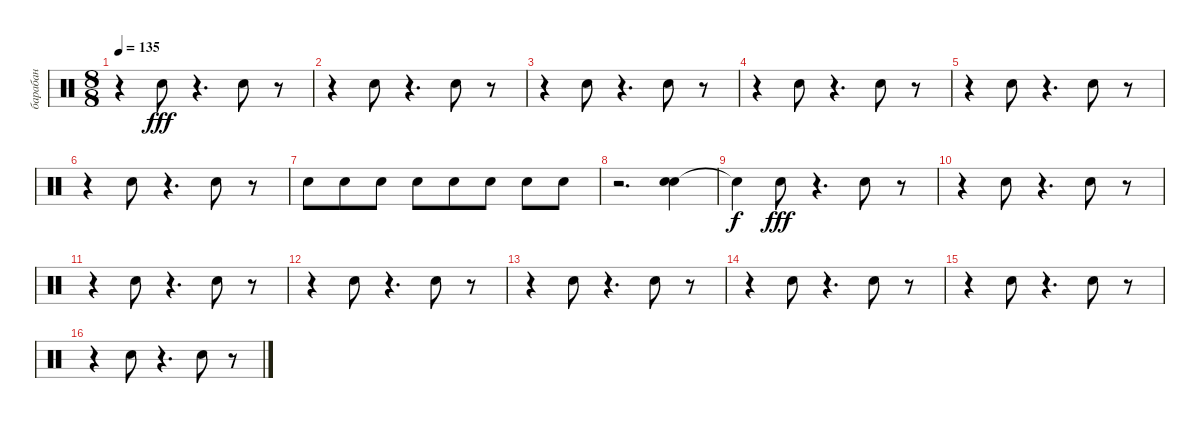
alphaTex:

\track ("барабан" "барабан") {instrument percussion}
\staff {score}
\articulation defaults
\ts (8 8)
\tempo 135
\clef neutral
\ks c
r.4{dy fff} "Snare (hit) 2".8 r.4{d} "Snare (hit) 2".8 r.8 |
r.4 "Snare (hit) 2".8 r.4{d} "Snare (hit) 2".8 r.8 |
r.4 "Snare (hit) 2".8 r.4{d} "Snare (hit) 2".8 r.8 |
r.4 "Snare (hit) 2".8 r.4{d} "Snare (hit) 2".8 r.8 |
r.4 "Snare (hit) 2".8 r.4{d} "Snare (hit) 2".8 r.8 |
r.4 "Snare (hit) 2".8 r.4{d} "Snare (hit) 2".8 r.8 |
"Snare (hit) 2".8 "Snare (hit) 2".8 "Snare (hit) 2".8 "Snare (hit) 2".8 "Snare (hit) 2".8 "Snare (hit) 2".8 "Snare (hit) 2".8 "Snare (hit) 2".8 |
r.2{d} ("Snare (hit) 2" "Snare (hit) 2").4 |
"Snare (hit)"{t}.4{dy f} "Snare (hit) 2".8{dy fff} r.4{d} "Snare (hit) 2".8 r.8 |
r.4 "Snare (hit) 2".8 r.4{d} "Snare (hit) 2".8 r.8 |
r.4 "Snare (hit) 2".8 r.4{d} "Snare (hit) 2".8 r.8 |
r.4 "Snare (hit) 2".8 r.4{d} "Snare (hit) 2".8 r.8 |
r.4 "Snare (hit) 2".8 r.4{d} "Snare (hit) 2".8 r.8 |
r.4 "Snare (hit) 2".8 r.4{d} "Snare (hit) 2".8 r.8 |
r.4 "Snare (hit) 2".8 r.4{d} "Snare (hit) 2".8 r.8 |
r.4 "Snare (hit) 2".8 r.4{d} "Snare (hit) 2".8 r.8
